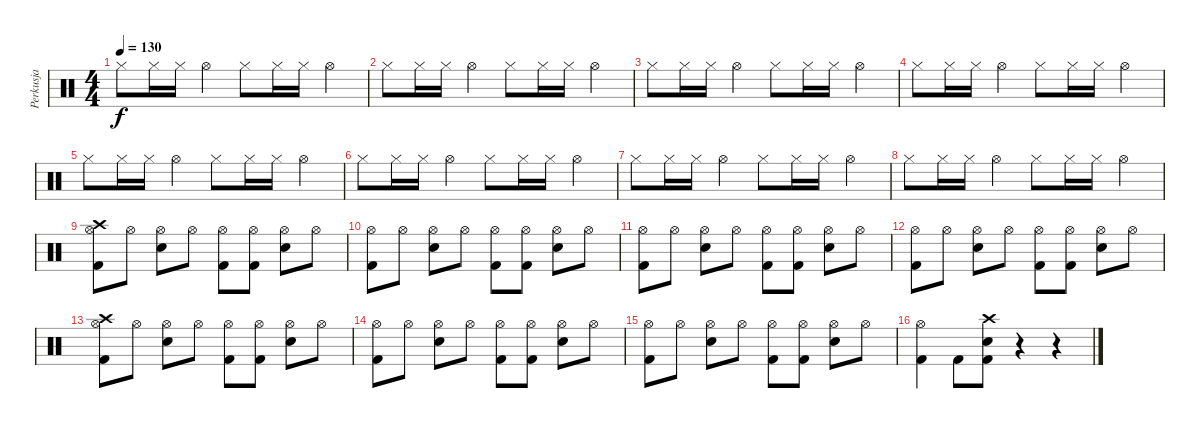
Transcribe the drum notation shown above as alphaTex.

\track ("Perkusja" "Perkusja") {instrument percussion}
\staff {score}
\articulation defaults
\ts (4 4)
\tempo 130
\clef neutral
\ks c "Hi-Hat (closed)".8{dy f} "Hi-Hat (closed)".16 "Hi-Hat (closed)".16 "Hi-Hat (open)".4 "Hi-Hat (closed)".8 "Hi-Hat (closed)".16 "Hi-Hat (closed)".16 "Hi-Hat (open)".4
|
"Hi-Hat (closed)".8 "Hi-Hat (closed)".16 "Hi-Hat (closed)".16 "Hi-Hat (open)".4 "Hi-Hat (closed)".8 "Hi-Hat (closed)".16 "Hi-Hat (closed)".16 "Hi-Hat (open)".4 |
"Hi-Hat (closed)".8 "Hi-Hat (closed)".16 "Hi-Hat (closed)".16 "Hi-Hat (open)".4 "Hi-Hat (closed)".8 "Hi-Hat (closed)".16 "Hi-Hat (closed)".16 "Hi-Hat (open)".4 |
"Hi-Hat (closed)".8 "Hi-Hat (closed)".16 "Hi-Hat (closed)".16 "Hi-Hat (open)".4 "Hi-Hat (closed)".8 "Hi-Hat (closed)".16 "Hi-Hat (closed)".16 "Hi-Hat (open)".4 |
"Hi-Hat (closed)".8 "Hi-Hat (closed)".16 "Hi-Hat (closed)".16 "Hi-Hat (open)".4 "Hi-Hat (closed)".8 "Hi-Hat (closed)".16 "Hi-Hat (closed)".16 "Hi-Hat (open)".4 |
"Hi-Hat (closed)".8 "Hi-Hat (closed)".16 "Hi-Hat (closed)".16 "Hi-Hat (open)".4 "Hi-Hat (closed)".8 "Hi-Hat (closed)".16 "Hi-Hat (closed)".16 "Hi-Hat (open)".4 |
"Hi-Hat (closed)".8 "Hi-Hat (closed)".16 "Hi-Hat (closed)".16 "Hi-Hat (open)".4 "Hi-Hat (closed)".8 "Hi-Hat (closed)".16 "Hi-Hat (closed)".16 "Hi-Hat (open)".4 |
"Hi-Hat (closed)".8 "Hi-Hat (closed)".16 "Hi-Hat (closed)".16 "Hi-Hat (open)".4 "Hi-Hat (closed)".8 "Hi-Hat (closed)".16 "Hi-Hat (closed)".16 "Hi-Hat (open)".4 |
("Crash high (hit)" "Hi-Hat (open)" "Kick (hit) 2").8 "Hi-Hat (open)".8 ("Hi-Hat (open)" "Snare (hit) 2").8 "Hi-Hat (open)".8 ("Hi-Hat (open)" "Kick (hit) 2").8 ("Hi-Hat (open)" "Kick (hit) 2").8 ("Hi-Hat (open)" "Snare (hit) 2").8 "Hi-Hat (open)".8 |
("Hi-Hat (open)" "Kick (hit) 2").8 "Hi-Hat (open)".8 ("Hi-Hat (open)" "Snare (hit) 2").8 "Hi-Hat (open)".8 ("Hi-Hat (open)" "Kick (hit) 2").8 ("Hi-Hat (open)" "Kick (hit) 2").8 ("Hi-Hat (open)" "Snare (hit) 2").8 "Hi-Hat (open)".8 |
("Hi-Hat (open)" "Kick (hit) 2").8 "Hi-Hat (open)".8 ("Hi-Hat (open)" "Snare (hit) 2").8 "Hi-Hat (open)".8 ("Hi-Hat (open)" "Kick (hit) 2").8 ("Hi-Hat (open)" "Kick (hit) 2").8 ("Hi-Hat (open)" "Snare (hit) 2").8 "Hi-Hat (open)".8 |
("Hi-Hat (open)" "Kick (hit) 2").8 "Hi-Hat (open)".8 ("Hi-Hat (open)" "Snare (hit) 2").8 "Hi-Hat (open)".8 ("Hi-Hat (open)" "Kick (hit) 2").8 ("Hi-Hat (open)" "Kick (hit) 2").8 ("Hi-Hat (open)" "Snare (hit) 2").8 "Hi-Hat (open)".8 |
("Crash high (hit)" "Hi-Hat (open)" "Kick (hit) 2").8 "Hi-Hat (open)".8 ("Hi-Hat (open)" "Snare (hit) 2").8 "Hi-Hat (open)".8 ("Hi-Hat (open)" "Kick (hit) 2").8 ("Hi-Hat (open)" "Kick (hit) 2").8 ("Hi-Hat (open)" "Snare (hit) 2").8 "Hi-Hat (open)".8 |
("Hi-Hat (open)" "Kick (hit) 2").8 "Hi-Hat (open)".8 ("Hi-Hat (open)" "Snare (hit) 2").8 "Hi-Hat (open)".8 ("Hi-Hat (open)" "Kick (hit) 2").8 ("Hi-Hat (open)" "Kick (hit) 2").8 ("Hi-Hat (open)" "Snare (hit) 2").8 "Hi-Hat (open)".8 |
("Hi-Hat (open)" "Kick (hit) 2").8 "Hi-Hat (open)".8 ("Hi-Hat (open)" "Snare (hit) 2").8 "Hi-Hat (open)".8 ("Hi-Hat (open)" "Kick (hit) 2").8 ("Hi-Hat (open)" "Kick (hit) 2").8 ("Hi-Hat (open)" "Snare (hit) 2").8 "Hi-Hat (open)".8 |
("Hi-Hat (open)" "Kick (hit) 2").4 "Kick (hit) 2".8 ("Crash high (hit)" "Snare (hit) 2" "Kick (hit) 2").8 r.4 r.4
